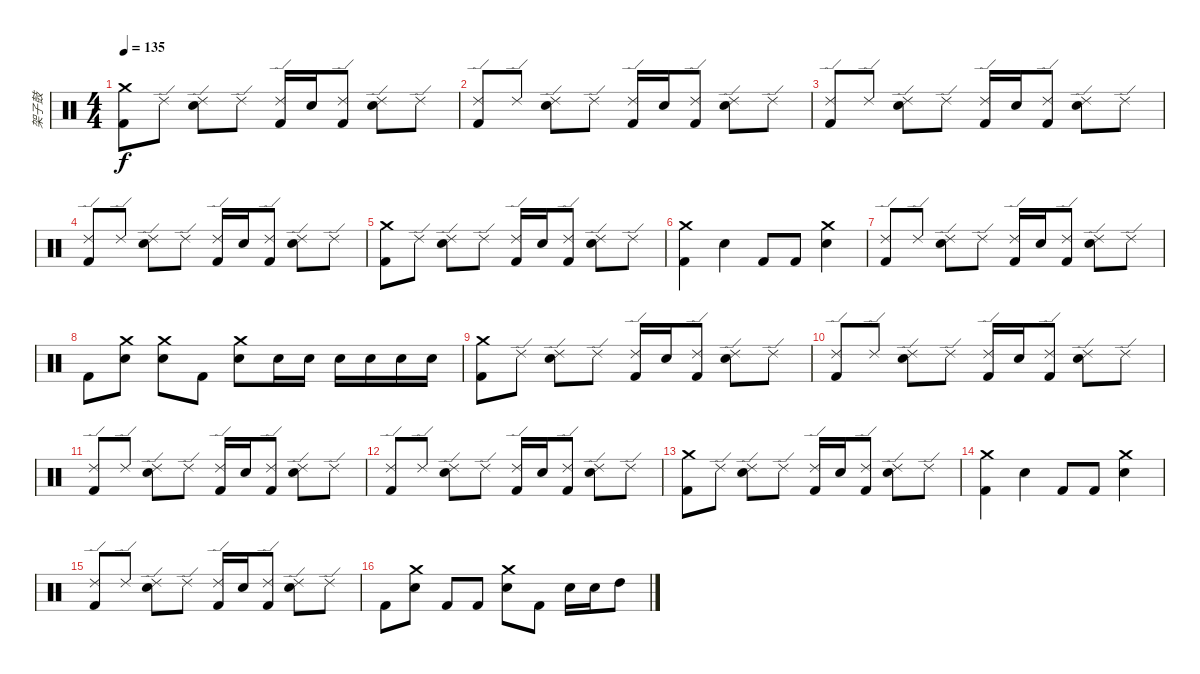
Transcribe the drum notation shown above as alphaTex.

\track ("架子鼓" "架子鼓") {instrument percussion}
\staff {score}
\articulation defaults
\ts (4 4)
\tempo 135
\clef neutral
\ks c
("Crash medium (hit)" "Kick (hit) 2").8{dy f} "Ride (edge) 2".8 ("Ride (edge) 2" "Electric Snare (hit)").8 "Ride (edge) 2".8 ("Ride (edge) 2" "Kick (hit) 2").16 "Electric Snare (hit)".16 ("Ride (edge) 2" "Kick (hit) 2").8 ("Ride (edge) 2" "Electric Snare (hit)").8 "Ride (edge) 2".8 |
("Ride (edge) 2" "Kick (hit) 2").8 "Ride (edge) 2".8 ("Ride (edge) 2" "Electric Snare (hit)").8 "Ride (edge) 2".8 ("Ride (edge) 2" "Kick (hit) 2").16 "Electric Snare (hit)".16 ("Ride (edge) 2" "Kick (hit) 2").8 ("Ride (edge) 2" "Electric Snare (hit)").8 "Ride (edge) 2".8 |
("Ride (edge) 2" "Kick (hit) 2").8 "Ride (edge) 2".8 ("Ride (edge) 2" "Electric Snare (hit)").8 "Ride (edge) 2".8 ("Ride (edge) 2" "Kick (hit) 2").16 "Electric Snare (hit)".16 ("Ride (edge) 2" "Kick (hit) 2").8 ("Ride (edge) 2" "Electric Snare (hit)").8 "Ride (edge) 2".8 |
("Ride (edge) 2" "Kick (hit) 2").8 "Ride (edge) 2".8 ("Ride (edge) 2" "Electric Snare (hit)").8 "Ride (edge) 2".8 ("Ride (edge) 2" "Kick (hit) 2").16 "Electric Snare (hit)".16 ("Ride (edge) 2" "Kick (hit) 2").8 ("Ride (edge) 2" "Electric Snare (hit)").8 "Ride (edge) 2".8 |
("Crash medium (hit)" "Kick (hit) 2").8 "Ride (edge) 2".8 ("Ride (edge) 2" "Electric Snare (hit)").8 "Ride (edge) 2".8 ("Ride (edge) 2" "Kick (hit) 2").16 "Electric Snare (hit)".16 ("Ride (edge) 2" "Kick (hit) 2").8 ("Ride (edge) 2" "Electric Snare (hit)").8 "Ride (edge) 2".8 |
("Crash medium (hit)" "Kick (hit) 2").4 "Electric Snare (hit)".4 "Kick (hit) 2".8 "Kick (hit) 2".8 ("Crash medium (hit)" "Electric Snare (hit)").4 |
("Ride (edge) 2" "Kick (hit) 2").8 "Ride (edge) 2".8 ("Ride (edge) 2" "Electric Snare (hit)").8 "Ride (edge) 2".8 ("Ride (edge) 2" "Kick (hit) 2").16 "Electric Snare (hit)".16 ("Ride (edge) 2" "Kick (hit) 2").8 ("Ride (edge) 2" "Electric Snare (hit)").8 "Ride (edge) 2".8 |
"Kick (hit) 2".8 ("Crash medium (hit)" "Electric Snare (hit)").8 ("Crash medium (hit)" "Electric Snare (hit)").8 "Kick (hit) 2".8 ("Crash medium (hit)" "Electric Snare (hit)").8 "Electric Snare (hit)".16 "Electric Snare (hit)".16 "Electric Snare (hit)".16 "Electric Snare (hit)".16 "Electric Snare (hit)".16 "Electric Snare (hit)".16 |
("Crash medium (hit)" "Kick (hit) 2").8 "Ride (edge) 2".8 ("Ride (edge) 2" "Electric Snare (hit)").8 "Ride (edge) 2".8 ("Ride (edge) 2" "Kick (hit) 2").16 "Electric Snare (hit)".16 ("Ride (edge) 2" "Kick (hit) 2").8 ("Ride (edge) 2" "Electric Snare (hit)").8 "Ride (edge) 2".8 |
("Ride (edge) 2" "Kick (hit) 2").8 "Ride (edge) 2".8 ("Ride (edge) 2" "Electric Snare (hit)").8 "Ride (edge) 2".8 ("Ride (edge) 2" "Kick (hit) 2").16 "Electric Snare (hit)".16 ("Ride (edge) 2" "Kick (hit) 2").8 ("Ride (edge) 2" "Electric Snare (hit)").8 "Ride (edge) 2".8 |
("Ride (edge) 2" "Kick (hit) 2").8 "Ride (edge) 2".8 ("Ride (edge) 2" "Electric Snare (hit)").8 "Ride (edge) 2".8 ("Ride (edge) 2" "Kick (hit) 2").16 "Electric Snare (hit)".16 ("Ride (edge) 2" "Kick (hit) 2").8 ("Ride (edge) 2" "Electric Snare (hit)").8 "Ride (edge) 2".8 |
("Ride (edge) 2" "Kick (hit) 2").8 "Ride (edge) 2".8 ("Ride (edge) 2" "Electric Snare (hit)").8 "Ride (edge) 2".8 ("Ride (edge) 2" "Kick (hit) 2").16 "Electric Snare (hit)".16 ("Ride (edge) 2" "Kick (hit) 2").8 ("Ride (edge) 2" "Electric Snare (hit)").8 "Ride (edge) 2".8 |
("Crash medium (hit)" "Kick (hit) 2").8 "Ride (edge) 2".8 ("Ride (edge) 2" "Electric Snare (hit)").8 "Ride (edge) 2".8 ("Ride (edge) 2" "Kick (hit) 2").16 "Electric Snare (hit)".16 ("Ride (edge) 2" "Kick (hit) 2").8 ("Ride (edge) 2" "Electric Snare (hit)").8 "Ride (edge) 2".8 |
("Crash medium (hit)" "Kick (hit) 2").4 "Electric Snare (hit)".4 "Kick (hit) 2".8 "Kick (hit) 2".8 ("Crash medium (hit)" "Electric Snare (hit)").4 |
("Ride (edge) 2" "Kick (hit) 2").8 "Ride (edge) 2".8 ("Ride (edge) 2" "Electric Snare (hit)").8 "Ride (edge) 2".8 ("Ride (edge) 2" "Kick (hit) 2").16 "Electric Snare (hit)".16 ("Ride (edge) 2" "Kick (hit) 2").8 ("Ride (edge) 2" "Electric Snare (hit)").8 "Ride (edge) 2".8 |
"Kick (hit) 2".8 ("Crash medium (hit)" "Electric Snare (hit)").8 "Kick (hit) 2".8 "Kick (hit) 2".8 ("Crash medium (hit)" "Electric Snare (hit)").8 "Kick (hit) 2".8 "Electric Snare (hit)".16 "Electric Snare (hit)".16 "High Tom (hit)".8
